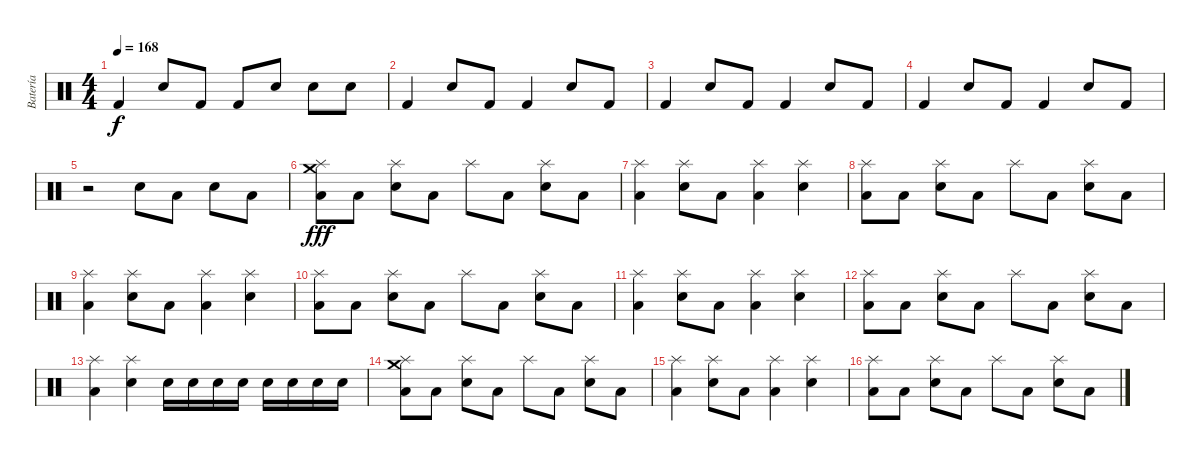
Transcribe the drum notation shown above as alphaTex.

\track ("Batería" "Batería") {instrument percussion}
\staff {score}
\articulation defaults
\ts (4 4)
\tempo 168
\clef neutral
\ks c "Kick (hit) 2".4{dy f} "Electric Snare (hit)".8 "Kick (hit) 2".8 "Kick (hit) 2".8 "Electric Snare (hit)".8 "Electric Snare (hit)".8 "Electric Snare (hit)".8
|
"Kick (hit) 2".4 "Electric Snare (hit)".8 "Kick (hit) 2".8 "Kick (hit) 2".4 "Electric Snare (hit)".8 "Kick (hit) 2".8 |
"Kick (hit) 2".4 "Electric Snare (hit)".8 "Kick (hit) 2".8 "Kick (hit) 2".4 "Electric Snare (hit)".8 "Kick (hit) 2".8 |
"Kick (hit) 2".4 "Electric Snare (hit)".8 "Kick (hit) 2".8 "Kick (hit) 2".4 "Electric Snare (hit)".8 "Kick (hit) 2".8 |
r.2 "Electric Snare (hit)".8 "Low Floor Tom (hit)".8 "Electric Snare (hit)".8 "Low Floor Tom (hit)".8 |
("Crash medium (hit)" "Splash (hit)" "Low Floor Tom (hit)").8{dy fff} "Low Floor Tom (hit)".8 ("Splash (hit)" "Electric Snare (hit)").8 "Low Floor Tom (hit)".8 "Splash (hit)".8 "Low Floor Tom (hit)".8 ("Splash (hit)" "Electric Snare (hit)").8 "Low Floor Tom (hit)".8 |
("Splash (hit)" "Low Floor Tom (hit)").4 ("Splash (hit)" "Electric Snare (hit)").8 "Low Floor Tom (hit)".8 ("Splash (hit)" "Low Floor Tom (hit)").4 ("Splash (hit)" "Electric Snare (hit)").4 |
("Splash (hit)" "Low Floor Tom (hit)").8 "Low Floor Tom (hit)".8 ("Splash (hit)" "Electric Snare (hit)").8 "Low Floor Tom (hit)".8 "Splash (hit)".8 "Low Floor Tom (hit)".8 ("Splash (hit)" "Electric Snare (hit)").8 "Low Floor Tom (hit)".8 |
("Splash (hit)" "Low Floor Tom (hit)").4 ("Splash (hit)" "Electric Snare (hit)").8 "Low Floor Tom (hit)".8 ("Splash (hit)" "Low Floor Tom (hit)").4 ("Splash (hit)" "Electric Snare (hit)").4 |
("Splash (hit)" "Low Floor Tom (hit)").8 "Low Floor Tom (hit)".8 ("Splash (hit)" "Electric Snare (hit)").8 "Low Floor Tom (hit)".8 "Splash (hit)".8 "Low Floor Tom (hit)".8 ("Splash (hit)" "Electric Snare (hit)").8 "Low Floor Tom (hit)".8 |
("Splash (hit)" "Low Floor Tom (hit)").4 ("Splash (hit)" "Electric Snare (hit)").8 "Low Floor Tom (hit)".8 ("Splash (hit)" "Low Floor Tom (hit)").4 ("Splash (hit)" "Electric Snare (hit)").4 |
("Splash (hit)" "Low Floor Tom (hit)").8 "Low Floor Tom (hit)".8 ("Splash (hit)" "Electric Snare (hit)").8 "Low Floor Tom (hit)".8 "Splash (hit)".8 "Low Floor Tom (hit)".8 ("Splash (hit)" "Electric Snare (hit)").8 "Low Floor Tom (hit)".8 |
("Splash (hit)" "Low Floor Tom (hit)").4 ("Splash (hit)" "Electric Snare (hit)").4 "Electric Snare (hit)".16 "Electric Snare (hit)".16 "Electric Snare (hit)".16 "Electric Snare (hit)".16 "Electric Snare (hit)".16 "Electric Snare (hit)".16 "Electric Snare (hit)".16 "Electric Snare (hit)".16 |
("Crash medium (hit)" "Splash (hit)" "Low Floor Tom (hit)").8 "Low Floor Tom (hit)".8 ("Splash (hit)" "Electric Snare (hit)").8 "Low Floor Tom (hit)".8 "Splash (hit)".8 "Low Floor Tom (hit)".8 ("Splash (hit)" "Electric Snare (hit)").8 "Low Floor Tom (hit)".8 |
("Splash (hit)" "Low Floor Tom (hit)").4 ("Splash (hit)" "Electric Snare (hit)").8 "Low Floor Tom (hit)".8 ("Splash (hit)" "Low Floor Tom (hit)").4 ("Splash (hit)" "Electric Snare (hit)").4 |
("Splash (hit)" "Low Floor Tom (hit)").8 "Low Floor Tom (hit)".8 ("Splash (hit)" "Electric Snare (hit)").8 "Low Floor Tom (hit)".8 "Splash (hit)".8 "Low Floor Tom (hit)".8 ("Splash (hit)" "Electric Snare (hit)").8 "Low Floor Tom (hit)".8
